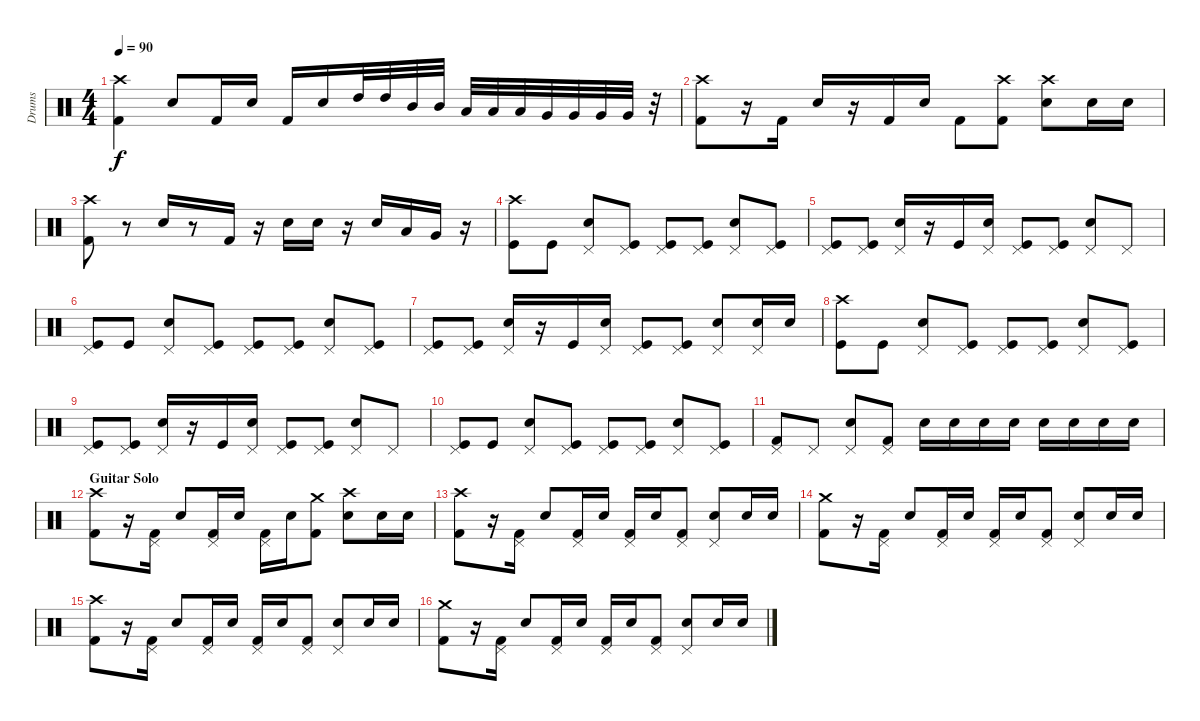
\track ("Drums" "Drums") {instrument percussion}
\staff {score}
\articulation defaults
\ts (4 4)
\tempo 90
\clef neutral
\ks c
("Crash high (hit)" "Kick (hit) 2").4{dy f} "Snare (hit) 2".8 "Kick (hit) 2".16 "Snare (hit) 2".16 "Kick (hit) 2".16 "Snare (hit) 2".16 "High Tom (hit)".32 "High Tom (hit)".32 "Mid Tom (hit)".32 "Mid Tom (hit)".32 "Low Tom (hit)".32 "Low Tom (hit)".32 "Low Tom (hit)".32 "Very Low Tom (hit)".32 "Very Low Tom (hit)".32 "Very Low Tom (hit)".32 "Very Low Tom (hit)".32 r.32 |
("Crash high (hit)" "Kick (hit) 2").8 r.16 "Kick (hit) 2".16 "Snare (hit) 2".16 r.16 "Kick (hit) 2".16 "Snare (hit) 2".16 "Kick (hit) 2".8 ("Crash high (hit)" "Kick (hit) 2").8 ("Crash high (hit)" "Snare (hit) 2").8 "Snare (hit) 2".16 "Snare (hit) 2".16 |
("Crash high (hit)" "Kick (hit) 2").8 r.8 "Snare (hit) 2".16 r.8 "Kick (hit) 2".16 r.16 "Snare (hit) 2".16 "Snare (hit) 2".16 r.16 "Snare (hit) 2".16 "Low Tom (hit)".16 "Very Low Tom (hit)".16 r.16 |
("Crash high (hit)" "Kick (hit)").8 "Kick (hit)".8 ("Pedal Hi-Hat (hit)" "Snare (hit) 2").8 ("Pedal Hi-Hat (hit)" "Kick (hit)").8 ("Pedal Hi-Hat (hit)" "Kick (hit)").8 ("Pedal Hi-Hat (hit)" "Kick (hit)").8 ("Pedal Hi-Hat (hit)" "Snare (hit) 2").8 ("Pedal Hi-Hat (hit)" "Kick (hit)").8 |
("Pedal Hi-Hat (hit)" "Kick (hit)").8 ("Pedal Hi-Hat (hit)" "Kick (hit)").8 ("Pedal Hi-Hat (hit)" "Snare (hit) 2").16 r.16 "Kick (hit)".16 ("Pedal Hi-Hat (hit)" "Snare (hit) 2").16 ("Pedal Hi-Hat (hit)" "Kick (hit)").8 ("Pedal Hi-Hat (hit)" "Kick (hit)").8 ("Pedal Hi-Hat (hit)" "Snare (hit) 2").8 "Pedal Hi-Hat (hit)".8 |
("Pedal Hi-Hat (hit)" "Kick (hit)").8 "Kick (hit)".8 ("Pedal Hi-Hat (hit)" "Snare (hit) 2").8 ("Pedal Hi-Hat (hit)" "Kick (hit)").8 ("Pedal Hi-Hat (hit)" "Kick (hit)").8 ("Pedal Hi-Hat (hit)" "Kick (hit)").8 ("Pedal Hi-Hat (hit)" "Snare (hit) 2").8 ("Pedal Hi-Hat (hit)" "Kick (hit)").8 |
("Pedal Hi-Hat (hit)" "Kick (hit)").8 ("Pedal Hi-Hat (hit)" "Kick (hit)").8 ("Pedal Hi-Hat (hit)" "Snare (hit) 2").16 r.16 "Kick (hit)".16 ("Pedal Hi-Hat (hit)" "Snare (hit) 2").16 ("Pedal Hi-Hat (hit)" "Kick (hit)").8 ("Pedal Hi-Hat (hit)" "Kick (hit)").8 ("Pedal Hi-Hat (hit)" "Snare (hit) 2").8 ("Pedal Hi-Hat (hit)" "Snare (hit) 2").16 "Snare (hit) 2".16 |
("Crash high (hit)" "Kick (hit)").8 "Kick (hit)".8 ("Pedal Hi-Hat (hit)" "Snare (hit) 2").8 ("Pedal Hi-Hat (hit)" "Kick (hit)").8 ("Pedal Hi-Hat (hit)" "Kick (hit)").8 ("Pedal Hi-Hat (hit)" "Kick (hit)").8 ("Pedal Hi-Hat (hit)" "Snare (hit) 2").8 ("Pedal Hi-Hat (hit)" "Kick (hit)").8 |
("Pedal Hi-Hat (hit)" "Kick (hit)").8 ("Pedal Hi-Hat (hit)" "Kick (hit)").8 ("Pedal Hi-Hat (hit)" "Snare (hit) 2").16 r.16 "Kick (hit)".16 ("Pedal Hi-Hat (hit)" "Snare (hit) 2").16 ("Pedal Hi-Hat (hit)" "Kick (hit)").8 ("Pedal Hi-Hat (hit)" "Kick (hit)").8 ("Pedal Hi-Hat (hit)" "Snare (hit) 2").8 "Pedal Hi-Hat (hit)".8 |
("Pedal Hi-Hat (hit)" "Kick (hit)").8 "Kick (hit)".8 ("Pedal Hi-Hat (hit)" "Snare (hit) 2").8 ("Pedal Hi-Hat (hit)" "Kick (hit)").8 ("Pedal Hi-Hat (hit)" "Kick (hit)").8 ("Pedal Hi-Hat (hit)" "Kick (hit)").8 ("Pedal Hi-Hat (hit)" "Snare (hit) 2").8 ("Pedal Hi-Hat (hit)" "Kick (hit)").8 |
("Pedal Hi-Hat (hit)" "Kick (hit) 2").8 "Pedal Hi-Hat (hit)".8 ("Pedal Hi-Hat (hit)" "Snare (hit) 2").8 ("Pedal Hi-Hat (hit)" "Kick (hit) 2").8 "Snare (hit) 2".16 "Snare (hit) 2".16 "Snare (hit) 2".16 "Snare (hit) 2".16 "Snare (hit) 2".16 "Snare (hit) 2".16 "Snare (hit) 2".16 "Snare (hit) 2".16 |
\section ("" "Guitar Solo")
("Crash high (hit)" "Kick (hit) 2").8 r.16 ("Pedal Hi-Hat (hit)" "Kick (hit) 2").16 "Snare (hit) 2".8 ("Pedal Hi-Hat (hit)" "Kick (hit) 2").16 "Snare (hit) 2".16 ("Pedal Hi-Hat (hit)" "Kick (hit) 2").16 "Snare (hit) 2".16 ("Crash medium (hit)" "Kick (hit) 2").8 ("Crash high (hit)" "Snare (hit) 2").8 "Snare (hit) 2".16 "Snare (hit) 2".16 |
("Crash high (hit)" "Kick (hit) 2").8 r.16 ("Pedal Hi-Hat (hit)" "Kick (hit) 2").16 "Snare (hit) 2".8 ("Pedal Hi-Hat (hit)" "Kick (hit) 2").16 "Snare (hit) 2".16 ("Pedal Hi-Hat (hit)" "Kick (hit) 2").16 "Snare (hit) 2".16 ("Pedal Hi-Hat (hit)" "Kick (hit) 2").8 ("Pedal Hi-Hat (hit)" "Snare (hit) 2").8 "Snare (hit) 2".16 "Snare (hit) 2".16 |
("Crash medium (hit)" "Kick (hit) 2").8 r.16 ("Pedal Hi-Hat (hit)" "Kick (hit) 2").16 "Snare (hit) 2".8 ("Pedal Hi-Hat (hit)" "Kick (hit) 2").16 "Snare (hit) 2".16 ("Pedal Hi-Hat (hit)" "Kick (hit) 2").16 "Snare (hit) 2".16 ("Pedal Hi-Hat (hit)" "Kick (hit) 2").8 ("Pedal Hi-Hat (hit)" "Snare (hit) 2").8 "Snare (hit) 2".16 "Snare (hit) 2".16 |
("Crash high (hit)" "Kick (hit) 2").8 r.16 ("Pedal Hi-Hat (hit)" "Kick (hit) 2").16 "Snare (hit) 2".8 ("Pedal Hi-Hat (hit)" "Kick (hit) 2").16 "Snare (hit) 2".16 ("Pedal Hi-Hat (hit)" "Kick (hit) 2").16 "Snare (hit) 2".16 ("Pedal Hi-Hat (hit)" "Kick (hit) 2").8 ("Pedal Hi-Hat (hit)" "Snare (hit) 2").8 "Snare (hit) 2".16 "Snare (hit) 2".16 |
("Crash medium (hit)" "Kick (hit) 2").8 r.16 ("Pedal Hi-Hat (hit)" "Kick (hit) 2").16 "Snare (hit) 2".8 ("Pedal Hi-Hat (hit)" "Kick (hit) 2").16 "Snare (hit) 2".16 ("Pedal Hi-Hat (hit)" "Kick (hit) 2").16 "Snare (hit) 2".16 ("Pedal Hi-Hat (hit)" "Kick (hit) 2").8 ("Pedal Hi-Hat (hit)" "Snare (hit) 2").8 "Snare (hit) 2".16 "Snare (hit) 2".16
